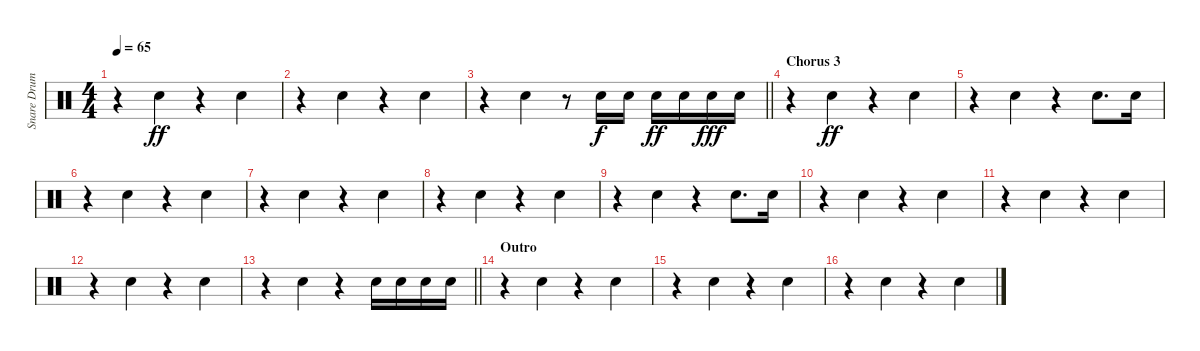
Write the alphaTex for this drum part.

\track ("Snare Drum" "Snare Drum") {instrument percussion}
\staff {score}
\articulation defaults
\ts (4 4)
\tempo 65
\clef neutral
\ks c
r.4{dy ff} "Electric Snare (hit)".4 r.4 "Electric Snare (hit)".4 |
r.4 "Electric Snare (hit)".4 r.4 "Electric Snare (hit)".4 |
\barLineRight lightlight
r.4{beam merge} "Electric Snare (hit)".4 r.8 "Electric Snare (hit)".16{dy f} "Electric Snare (hit)".16 "Electric Snare (hit)".16{dy ff} "Electric Snare (hit)".16 "Electric Snare (hit)".16{dy fff} "Electric Snare (hit)".16 |
\section ("" "Chorus 3")
r.4 "Electric Snare (hit)".4{dy ff} r.4 "Electric Snare (hit)".4 |
r.4 "Electric Snare (hit)".4 r.4 "Electric Snare (hit)".8{d} "Electric Snare (hit)".16 |
r.4 "Electric Snare (hit)".4 r.4 "Electric Snare (hit)".4 |
r.4 "Electric Snare (hit)".4 r.4 "Electric Snare (hit)".4 |
r.4 "Electric Snare (hit)".4 r.4 "Electric Snare (hit)".4 |
r.4 "Electric Snare (hit)".4 r.4 "Electric Snare (hit)".8{d} "Electric Snare (hit)".16 |
r.4 "Electric Snare (hit)".4 r.4 "Electric Snare (hit)".4 |
r.4 "Electric Snare (hit)".4 r.4 "Electric Snare (hit)".4 |
r.4 "Electric Snare (hit)".4 r.4 "Electric Snare (hit)".4 |
\barLineRight lightlight
r.4{beam merge} "Electric Snare (hit)".4 r.4 "Electric Snare (hit)".16 "Electric Snare (hit)".16 "Electric Snare (hit)".16 "Electric Snare (hit)".16 |
\section ("" "Outro")
r.4{beam merge} "Electric Snare (hit)".4 r.4{beam merge} "Electric Snare (hit)".4 |
r.4 "Electric Snare (hit)".4 r.4 "Electric Snare (hit)".4 |
r.4 "Electric Snare (hit)".4 r.4 "Electric Snare (hit)".4
